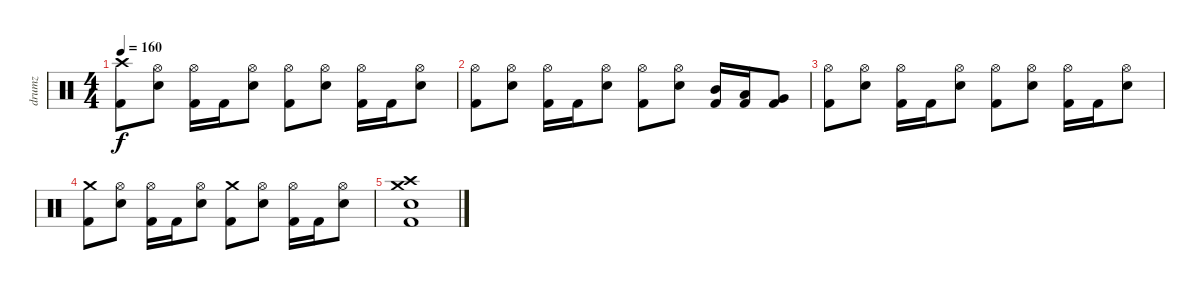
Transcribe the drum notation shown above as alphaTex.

\track ("drumz" "drumz") {instrument percussion}
\staff {score}
\articulation defaults
\ts (4 4)
\tempo 160
\clef neutral
\ks c
("Crash high (hit)" "Kick (hit) 2").8{dy f} ("Hi-Hat (open)" "Electric Snare (hit)").8 ("Hi-Hat (open)" "Kick (hit) 2").16 "Kick (hit) 2".16 ("Hi-Hat (open)" "Electric Snare (hit)").8 ("Hi-Hat (open)" "Kick (hit) 2").8 ("Hi-Hat (open)" "Electric Snare (hit)").8 ("Hi-Hat (open)" "Kick (hit) 2").16 "Kick (hit) 2".16 ("Hi-Hat (open)" "Electric Snare (hit)").8 |
("Hi-Hat (open)" "Kick (hit) 2").8 ("Hi-Hat (open)" "Electric Snare (hit)").8 ("Hi-Hat (open)" "Kick (hit) 2").16 "Kick (hit) 2".16 ("Hi-Hat (open)" "Electric Snare (hit)").8 ("Hi-Hat (open)" "Kick (hit) 2").8 ("Hi-Hat (open)" "Electric Snare (hit)").8 ("Mid Tom (hit)" "Kick (hit) 2").16 ("Low Tom (hit)" "Kick (hit) 2").16 ("Very Low Tom (hit)" "Kick (hit) 2").8 |
("Hi-Hat (open)" "Kick (hit) 2").8 ("Hi-Hat (open)" "Electric Snare (hit)").8 ("Hi-Hat (open)" "Kick (hit) 2").16 "Kick (hit) 2".16 ("Hi-Hat (open)" "Electric Snare (hit)").8 ("Hi-Hat (open)" "Kick (hit) 2").8 ("Hi-Hat (open)" "Electric Snare (hit)").8 ("Hi-Hat (open)" "Kick (hit) 2").16 "Kick (hit) 2".16 ("Hi-Hat (open)" "Electric Snare (hit)").8 |
("Crash medium (hit)" "Kick (hit) 2").8 ("Hi-Hat (open)" "Electric Snare (hit)").8 ("Hi-Hat (open)" "Kick (hit) 2").16 "Kick (hit) 2".16 ("Hi-Hat (open)" "Electric Snare (hit)").8 ("Crash medium (hit)" "Kick (hit) 2").8 ("Hi-Hat (open)" "Electric Snare (hit)").8 ("Hi-Hat (open)" "Kick (hit) 2").16 "Kick (hit) 2".16 ("Hi-Hat (open)" "Electric Snare (hit)").8 |
("Crash medium (hit)" "Crash high (hit)" "Electric Snare (hit)" "Kick (hit) 2").1
